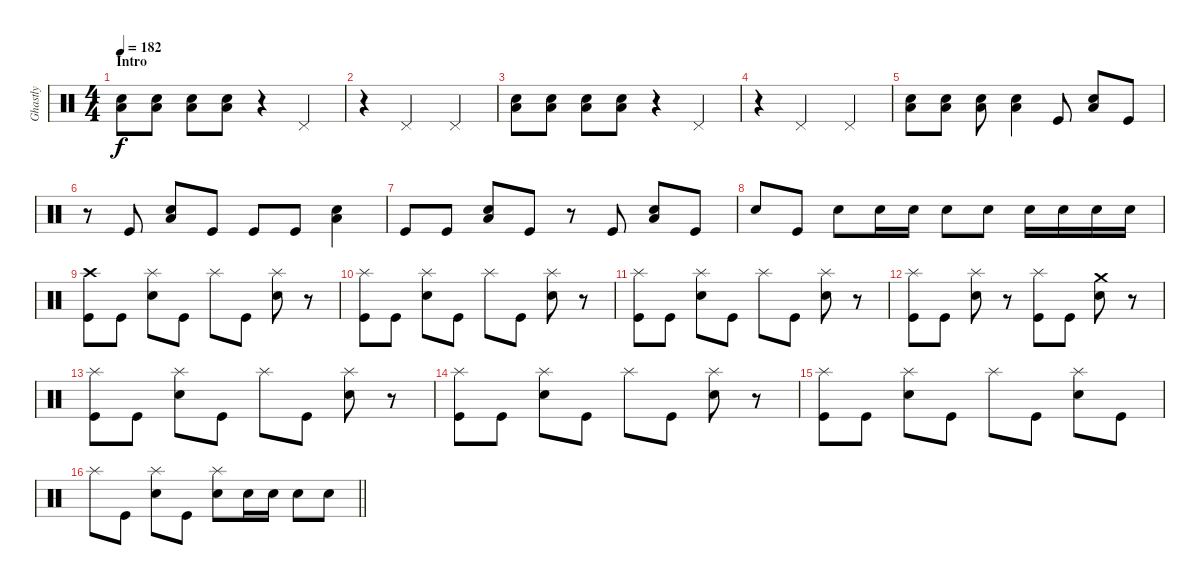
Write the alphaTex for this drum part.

\track ("Ghastly" "Ghastly") {instrument percussion}
\staff {score}
\articulation defaults
\ts (4 4)
\section ("" "Intro")
\tempo 182
\clef neutral
\ks c
("Low Tom (hit)" "Electric Snare (hit)").8{dy f} ("Low Tom (hit)" "Electric Snare (hit)").8 ("Low Tom (hit)" "Electric Snare (hit)").8 ("Low Tom (hit)" "Electric Snare (hit)").8 r.4 "Pedal Hi-Hat (hit)".4 |
r.4 "Pedal Hi-Hat (hit)".2 "Pedal Hi-Hat (hit)".4 |
("Low Tom (hit)" "Electric Snare (hit)").8 ("Low Tom (hit)" "Electric Snare (hit)").8 ("Low Tom (hit)" "Electric Snare (hit)").8 ("Low Tom (hit)" "Electric Snare (hit)").8 r.4 "Pedal Hi-Hat (hit)".4 |
r.4 "Pedal Hi-Hat (hit)".2 "Pedal Hi-Hat (hit)".4 |
("Low Tom (hit)" "Electric Snare (hit)").8 ("Low Tom (hit)" "Electric Snare (hit)").8 ("Low Tom (hit)" "Electric Snare (hit)").8 ("Low Tom (hit)" "Electric Snare (hit)").4 "Kick (hit)".8 ("Electric Snare (hit)" "Low Tom (hit)").8 "Kick (hit)".8 |
r.8 "Kick (hit)".8 ("Low Tom (hit)" "Electric Snare (hit)").8 "Kick (hit)".8 "Kick (hit)".8 "Kick (hit)".8 ("Low Tom (hit)" "Electric Snare (hit)").4 |
"Kick (hit)".8 "Kick (hit)".8 ("Low Tom (hit)" "Electric Snare (hit)").8 "Kick (hit)".8 r.8 "Kick (hit)".8 ("Low Tom (hit)" "Electric Snare (hit)").8 "Kick (hit)".8 |
"Electric Snare (hit)".8 "Kick (hit)".8 "Electric Snare (hit)".8 "Electric Snare (hit)".16 "Electric Snare (hit)".16 "Electric Snare (hit)".8 "Electric Snare (hit)".8 "Electric Snare (hit)".16 "Electric Snare (hit)".16 "Electric Snare (hit)".16 "Electric Snare (hit)".16 |
("Crash high (hit)" "Kick (hit)").8 "Kick (hit)".8 ("Splash (hit)" "Electric Snare (hit)").8 "Kick (hit)".8 "Splash (hit)".8 "Kick (hit)".8 ("Splash (hit)" "Electric Snare (hit)").8 r.8 |
("Splash (hit)" "Kick (hit)").8 "Kick (hit)".8 ("Splash (hit)" "Electric Snare (hit)").8 "Kick (hit)".8 "Splash (hit)".8 "Kick (hit)".8 ("Splash (hit)" "Electric Snare (hit)").8 r.8 |
("Splash (hit)" "Kick (hit)").8 "Kick (hit)".8 ("Splash (hit)" "Electric Snare (hit)").8 "Kick (hit)".8 "Splash (hit)".8 "Kick (hit)".8 ("Splash (hit)" "Electric Snare (hit)").8 r.8 |
("Splash (hit)" "Kick (hit)").8 "Kick (hit)".8 ("Splash (hit)" "Electric Snare (hit)").8 r.8 ("Splash (hit)" "Kick (hit)").8 "Kick (hit)".8 ("Crash medium (hit)" "Electric Snare (hit)").8 r.8 |
("Splash (hit)" "Kick (hit)").8 "Kick (hit)".8 ("Splash (hit)" "Electric Snare (hit)").8 "Kick (hit)".8 "Splash (hit)".8 "Kick (hit)".8 ("Splash (hit)" "Electric Snare (hit)").8 r.8 |
("Splash (hit)" "Kick (hit)").8 "Kick (hit)".8 ("Splash (hit)" "Electric Snare (hit)").8 "Kick (hit)".8 "Splash (hit)".8 "Kick (hit)".8 ("Splash (hit)" "Electric Snare (hit)").8 r.8 |
("Splash (hit)" "Kick (hit)").8 "Kick (hit)".8 ("Splash (hit)" "Electric Snare (hit)").8 "Kick (hit)".8 "Splash (hit)".8 "Kick (hit)".8 ("Splash (hit)" "Electric Snare (hit)").8 "Kick (hit)".8 |
\barLineRight lightlight "Splash (hit)".8 "Kick (hit)".8
("Splash (hit)" "Electric Snare (hit)").8 "Kick (hit)".8 ("Splash (hit)" "Electric Snare (hit)").8 "Electric Snare (hit)".16 "Electric Snare (hit)".16 "Electric Snare (hit)".8 "Electric Snare (hit)".8
